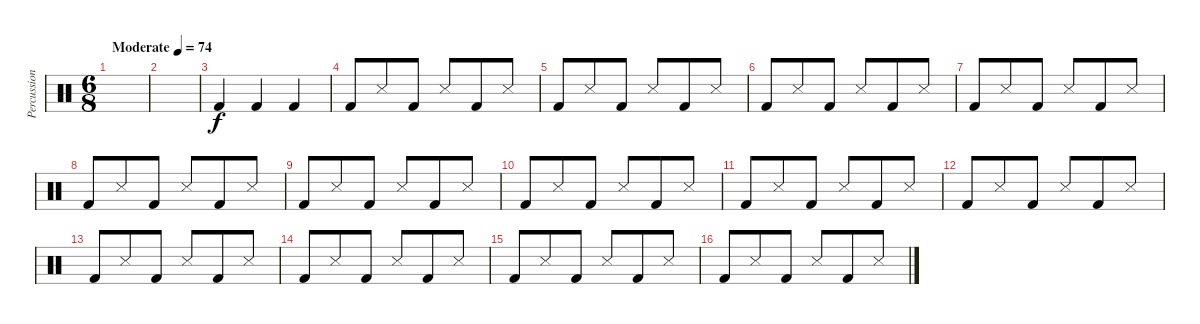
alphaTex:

\track ("Percussion" "Percussion") {instrument percussion}
\staff {score}
\articulation defaults
\ts (6 8)
\tempo (74 "Moderate")
\clef neutral
\ks c
|
|
"Kick (hit) 2".4 "Kick (hit) 2".4 "Kick (hit) 2".4 |
"Kick (hit) 2".8 "Snare (side stick) 3".8 "Kick (hit) 2".8 "Snare (side stick) 3".8 "Kick (hit) 2".8 "Snare (side stick) 3".8 |
"Kick (hit) 2".8 "Snare (side stick) 3".8 "Kick (hit) 2".8 "Snare (side stick) 3".8 "Kick (hit) 2".8 "Snare (side stick) 3".8 |
"Kick (hit) 2".8 "Snare (side stick) 3".8 "Kick (hit) 2".8 "Snare (side stick) 3".8 "Kick (hit) 2".8 "Snare (side stick) 3".8 |
"Kick (hit) 2".8 "Snare (side stick) 3".8 "Kick (hit) 2".8 "Snare (side stick) 3".8 "Kick (hit) 2".8 "Snare (side stick) 3".8 |
"Kick (hit) 2".8 "Snare (side stick) 3".8 "Kick (hit) 2".8 "Snare (side stick) 3".8 "Kick (hit) 2".8 "Snare (side stick) 3".8 |
"Kick (hit) 2".8 "Snare (side stick) 3".8 "Kick (hit) 2".8 "Snare (side stick) 3".8 "Kick (hit) 2".8 "Snare (side stick) 3".8 |
"Kick (hit) 2".8 "Snare (side stick) 3".8 "Kick (hit) 2".8 "Snare (side stick) 3".8 "Kick (hit) 2".8 "Snare (side stick) 3".8 |
"Kick (hit) 2".8 "Snare (side stick) 3".8 "Kick (hit) 2".8 "Snare (side stick) 3".8 "Kick (hit) 2".8 "Snare (side stick) 3".8 |
"Kick (hit) 2".8 "Snare (side stick) 3".8 "Kick (hit) 2".8 "Snare (side stick) 3".8 "Kick (hit) 2".8 "Snare (side stick) 3".8 |
"Kick (hit) 2".8 "Snare (side stick) 3".8 "Kick (hit) 2".8 "Snare (side stick) 3".8 "Kick (hit) 2".8 "Snare (side stick) 3".8 |
"Kick (hit) 2".8 "Snare (side stick) 3".8 "Kick (hit) 2".8 "Snare (side stick) 3".8 "Kick (hit) 2".8 "Snare (side stick) 3".8 |
"Kick (hit) 2".8 "Snare (side stick) 3".8 "Kick (hit) 2".8 "Snare (side stick) 3".8 "Kick (hit) 2".8 "Snare (side stick) 3".8 |
"Kick (hit) 2".8 "Snare (side stick) 3".8 "Kick (hit) 2".8 "Snare (side stick) 3".8 "Kick (hit) 2".8 "Snare (side stick) 3".8
